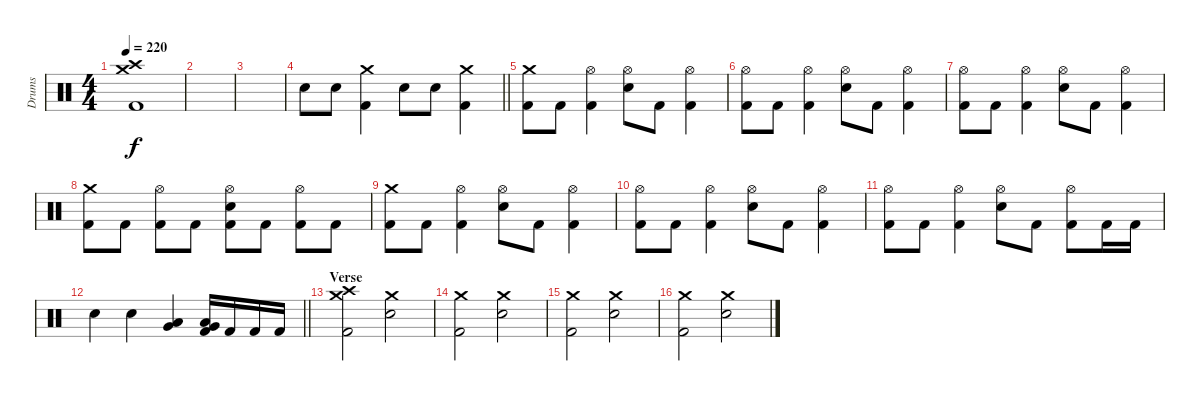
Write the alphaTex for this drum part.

\track ("Drums" "Drums") {instrument percussion}
\staff {score}
\articulation defaults
\ts (4 4)
\tempo 220
\clef neutral
\ks c
("Crash medium (hit)" "Crash high (hit)" "Kick (hit) 2").1{dy f} |
|
|
\barLineRight lightlight "Electric Snare (hit)".8 "Electric Snare (hit)".8
("Crash medium (hit)" "Kick (hit) 2").4 "Electric Snare (hit)".8 "Electric Snare (hit)".8 ("Crash medium (hit)" "Kick (hit) 2").4 |
\section ("" "")
("Crash medium (hit)" "Kick (hit) 2").8 "Kick (hit) 2".8 ("Hi-Hat (open)" "Kick (hit) 2").4 ("Hi-Hat (open)" "Electric Snare (hit)").8 "Kick (hit) 2".8 ("Hi-Hat (open)" "Kick (hit) 2").4 |
("Hi-Hat (open)" "Kick (hit) 2").8 "Kick (hit) 2".8 ("Hi-Hat (open)" "Kick (hit) 2").4 ("Hi-Hat (open)" "Electric Snare (hit)").8 "Kick (hit) 2".8 ("Hi-Hat (open)" "Kick (hit) 2").4 |
("Hi-Hat (open)" "Kick (hit) 2").8 "Kick (hit) 2".8 ("Hi-Hat (open)" "Kick (hit) 2").4 ("Hi-Hat (open)" "Electric Snare (hit)").8 "Kick (hit) 2".8 ("Hi-Hat (open)" "Kick (hit) 2").4 |
("Crash medium (hit)" "Kick (hit) 2").8 "Kick (hit) 2".8 ("Hi-Hat (open)" "Kick (hit) 2").8 "Kick (hit) 2".8 ("Hi-Hat (open)" "Electric Snare (hit)" "Kick (hit) 2").8 "Kick (hit) 2".8 ("Hi-Hat (open)" "Kick (hit) 2").8 "Kick (hit) 2".8 |
("Crash medium (hit)" "Kick (hit) 2").8 "Kick (hit) 2".8 ("Hi-Hat (open)" "Kick (hit) 2").4 ("Hi-Hat (open)" "Electric Snare (hit)").8 "Kick (hit) 2".8 ("Hi-Hat (open)" "Kick (hit) 2").4 |
("Hi-Hat (open)" "Kick (hit) 2").8 "Kick (hit) 2".8 ("Hi-Hat (open)" "Kick (hit) 2").4 ("Hi-Hat (open)" "Electric Snare (hit)").8 "Kick (hit) 2".8 ("Hi-Hat (open)" "Kick (hit) 2").4 |
("Hi-Hat (open)" "Kick (hit) 2").8 "Kick (hit) 2".8 ("Hi-Hat (open)" "Kick (hit) 2").4 ("Hi-Hat (open)" "Electric Snare (hit)").8 "Kick (hit) 2".8 ("Hi-Hat (open)" "Kick (hit) 2").8 "Kick (hit) 2".16 "Kick (hit) 2".16 |
\barLineRight lightlight "Electric Snare (hit)".4 "Electric Snare (hit)".4
("Low Tom (hit)" "Very Low Tom (hit)").4 ("Low Tom (hit)" "Very Low Tom (hit)" "Kick (hit) 2").16 "Kick (hit) 2".16 "Kick (hit) 2".16 "Kick (hit) 2".16 |
\section ("" "Verse")
("Crash medium (hit)" "Crash high (hit)" "Kick (hit) 2").2 ("Crash medium (hit)" "Electric Snare (hit)").2 |
("Crash medium (hit)" "Kick (hit) 2").2 ("Crash medium (hit)" "Electric Snare (hit)").2 |
("Crash medium (hit)" "Kick (hit) 2").2 ("Crash medium (hit)" "Electric Snare (hit)").2 |
("Crash medium (hit)" "Kick (hit) 2").2 ("Crash medium (hit)" "Electric Snare (hit)").2
